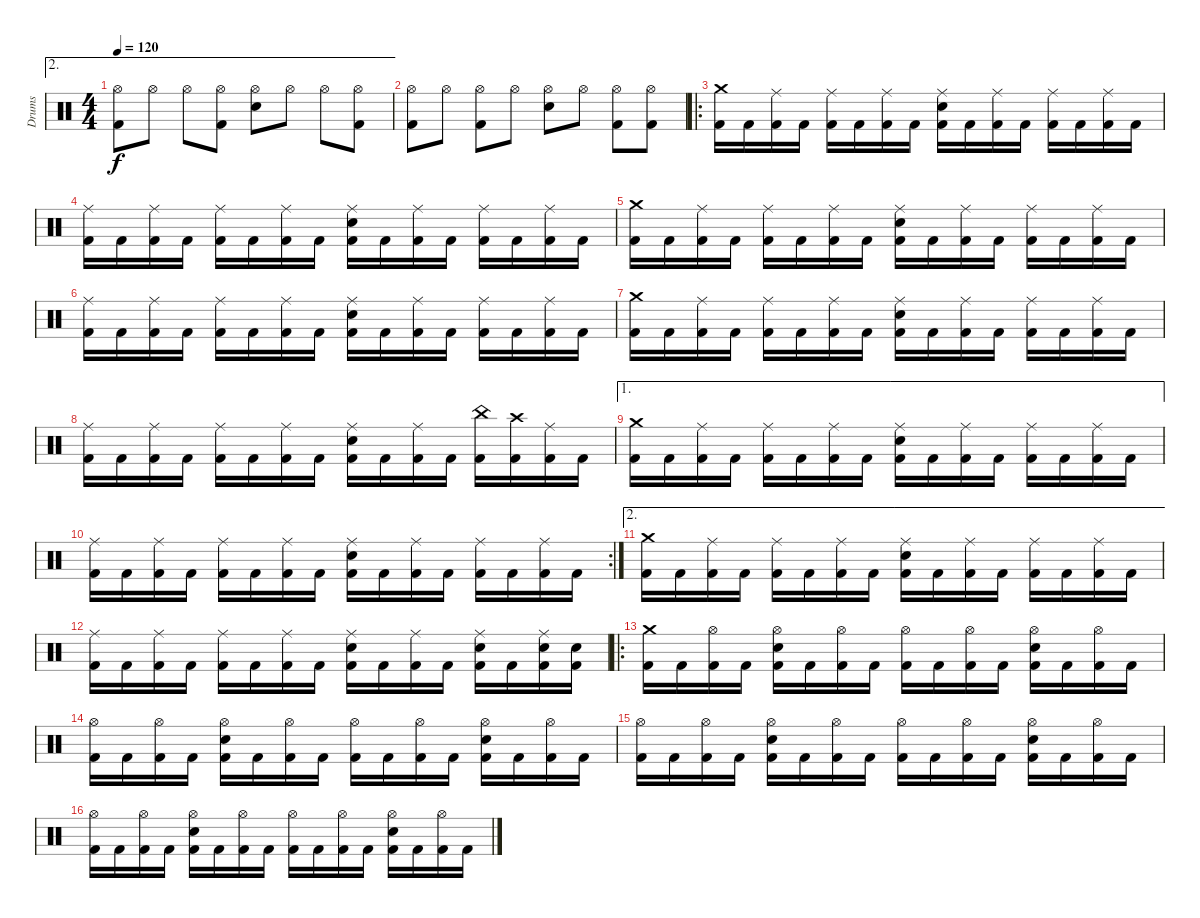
\track ("Drums " "Drums ") {instrument percussion}
\staff {score}
\articulation defaults
\ae 2
\ts (4 4)
\tempo 120
\clef neutral
\ks c
("Hi-Hat (open)" "Kick (hit) 2").8{dy f} "Hi-Hat (open)".8 "Hi-Hat (open)".8 ("Hi-Hat (open)" "Kick (hit) 2").8 ("Hi-Hat (open)" "Snare (hit) 2").8 "Hi-Hat (open)".8 "Hi-Hat (open)".8 ("Hi-Hat (open)" "Kick (hit) 2").8 |
("Hi-Hat (open)" "Kick (hit) 2").8 "Hi-Hat (open)".8 ("Hi-Hat (open)" "Kick (hit) 2").8 "Hi-Hat (open)".8 ("Hi-Hat (open)" "Snare (hit) 2").8 "Hi-Hat (open)".8 ("Hi-Hat (open)" "Kick (hit) 2").8 ("Hi-Hat (open)" "Kick (hit) 2").8 |
\ro
("Crash medium (hit)" "Kick (hit) 2").16 "Kick (hit) 2".16 ("Ride (middle)" "Kick (hit) 2").16 "Kick (hit) 2".16 ("Ride (middle)" "Kick (hit) 2").16 "Kick (hit) 2".16 ("Ride (middle)" "Kick (hit) 2").16 "Kick (hit) 2".16 ("Ride (middle)" "Snare (hit) 2" "Kick (hit) 2").16 "Kick (hit) 2".16 ("Ride (middle)" "Kick (hit) 2").16 "Kick (hit) 2".16 ("Ride (middle)" "Kick (hit) 2").16 "Kick (hit) 2".16 ("Ride (middle)" "Kick (hit) 2").16 "Kick (hit) 2".16 |
("Ride (middle)" "Kick (hit) 2").16 "Kick (hit) 2".16 ("Ride (middle)" "Kick (hit) 2").16 "Kick (hit) 2".16 ("Ride (middle)" "Kick (hit) 2").16 "Kick (hit) 2".16 ("Ride (middle)" "Kick (hit) 2").16 "Kick (hit) 2".16 ("Ride (middle)" "Snare (hit) 2" "Kick (hit) 2").16 "Kick (hit) 2".16 ("Ride (middle)" "Kick (hit) 2").16 "Kick (hit) 2".16 ("Ride (middle)" "Kick (hit) 2").16 "Kick (hit) 2".16 ("Ride (middle)" "Kick (hit) 2").16 "Kick (hit) 2".16 |
("Crash medium (hit)" "Kick (hit) 2").16 "Kick (hit) 2".16 ("Ride (middle)" "Kick (hit) 2").16 "Kick (hit) 2".16 ("Ride (middle)" "Kick (hit) 2").16 "Kick (hit) 2".16 ("Ride (middle)" "Kick (hit) 2").16 "Kick (hit) 2".16 ("Ride (middle)" "Snare (hit) 2" "Kick (hit) 2").16 "Kick (hit) 2".16 ("Ride (middle)" "Kick (hit) 2").16 "Kick (hit) 2".16 ("Ride (middle)" "Kick (hit) 2").16 "Kick (hit) 2".16 ("Ride (middle)" "Kick (hit) 2").16 "Kick (hit) 2".16 |
("Ride (middle)" "Kick (hit) 2").16 "Kick (hit) 2".16 ("Ride (middle)" "Kick (hit) 2").16 "Kick (hit) 2".16 ("Ride (middle)" "Kick (hit) 2").16 "Kick (hit) 2".16 ("Ride (middle)" "Kick (hit) 2").16 "Kick (hit) 2".16 ("Ride (middle)" "Snare (hit) 2" "Kick (hit) 2").16 "Kick (hit) 2".16 ("Ride (middle)" "Kick (hit) 2").16 "Kick (hit) 2".16 ("Ride (middle)" "Kick (hit) 2").16 "Kick (hit) 2".16 ("Ride (middle)" "Kick (hit) 2").16 "Kick (hit) 2".16 |
("Crash medium (hit)" "Kick (hit) 2").16 "Kick (hit) 2".16 ("Ride (middle)" "Kick (hit) 2").16 "Kick (hit) 2".16 ("Ride (middle)" "Kick (hit) 2").16 "Kick (hit) 2".16 ("Ride (middle)" "Kick (hit) 2").16 "Kick (hit) 2".16 ("Ride (middle)" "Snare (hit) 2" "Kick (hit) 2").16 "Kick (hit) 2".16 ("Ride (middle)" "Kick (hit) 2").16 "Kick (hit) 2".16 ("Ride (middle)" "Kick (hit) 2").16 "Kick (hit) 2".16 ("Ride (middle)" "Kick (hit) 2").16 "Kick (hit) 2".16 |
("Ride (middle)" "Kick (hit) 2").16 "Kick (hit) 2".16 ("Ride (middle)" "Kick (hit) 2").16 "Kick (hit) 2".16 ("Ride (middle)" "Kick (hit) 2").16 "Kick (hit) 2".16 ("Ride (middle)" "Kick (hit) 2").16 "Kick (hit) 2".16 ("Ride (middle)" "Snare (hit) 2" "Kick (hit) 2").16 "Kick (hit) 2".16 ("Ride (middle)" "Kick (hit) 2").16 "Kick (hit) 2".16 ("China (hit)" "Kick (hit) 2").16 ("Crash high (hit)" "Kick (hit) 2").16 ("Ride (middle)" "Kick (hit) 2").16 "Kick (hit) 2".16 |
\ae 1
("Crash medium (hit)" "Kick (hit) 2").16 "Kick (hit) 2".16 ("Ride (middle)" "Kick (hit) 2").16 "Kick (hit) 2".16 ("Ride (middle)" "Kick (hit) 2").16 "Kick (hit) 2".16 ("Ride (middle)" "Kick (hit) 2").16 "Kick (hit) 2".16 ("Ride (middle)" "Snare (hit) 2" "Kick (hit) 2").16 "Kick (hit) 2".16 ("Ride (middle)" "Kick (hit) 2").16 "Kick (hit) 2".16 ("Ride (middle)" "Kick (hit) 2").16 "Kick (hit) 2".16 ("Ride (middle)" "Kick (hit) 2").16 "Kick (hit) 2".16 |
\rc 2
("Ride (middle)" "Kick (hit) 2").16 "Kick (hit) 2".16 ("Ride (middle)" "Kick (hit) 2").16 "Kick (hit) 2".16 ("Ride (middle)" "Kick (hit) 2").16 "Kick (hit) 2".16 ("Ride (middle)" "Kick (hit) 2").16 "Kick (hit) 2".16 ("Ride (middle)" "Snare (hit) 2" "Kick (hit) 2").16 "Kick (hit) 2".16 ("Ride (middle)" "Kick (hit) 2").16 "Kick (hit) 2".16 ("Ride (middle)" "Kick (hit) 2").16 "Kick (hit) 2".16 ("Ride (middle)" "Kick (hit) 2").16 "Kick (hit) 2".16 |
\ae 2
("Crash medium (hit)" "Kick (hit) 2").16 "Kick (hit) 2".16 ("Ride (middle)" "Kick (hit) 2").16 "Kick (hit) 2".16 ("Ride (middle)" "Kick (hit) 2").16 "Kick (hit) 2".16 ("Ride (middle)" "Kick (hit) 2").16 "Kick (hit) 2".16 ("Ride (middle)" "Snare (hit) 2" "Kick (hit) 2").16 "Kick (hit) 2".16 ("Ride (middle)" "Kick (hit) 2").16 "Kick (hit) 2".16 ("Ride (middle)" "Kick (hit) 2").16 "Kick (hit) 2".16 ("Ride (middle)" "Kick (hit) 2").16 "Kick (hit) 2".16 |
("Ride (middle)" "Kick (hit) 2").16 "Kick (hit) 2".16 ("Ride (middle)" "Kick (hit) 2").16 "Kick (hit) 2".16 ("Ride (middle)" "Kick (hit) 2").16 "Kick (hit) 2".16 ("Ride (middle)" "Kick (hit) 2").16 "Kick (hit) 2".16 ("Ride (middle)" "Snare (hit) 2" "Kick (hit) 2").16 "Kick (hit) 2".16 ("Ride (middle)" "Kick (hit) 2").16 "Kick (hit) 2".16 ("Ride (middle)" "Snare (hit) 2" "Kick (hit) 2").16 "Kick (hit) 2".16 ("Ride (middle)" "Snare (hit) 2" "Kick (hit) 2").16 ("Snare (hit) 2" "Kick (hit) 2").16 |
\ro
("Crash medium (hit)" "Kick (hit) 2").16 "Kick (hit) 2".16 ("Hi-Hat (open)" "Kick (hit) 2").16 "Kick (hit) 2".16 ("Hi-Hat (open)" "Snare (hit) 2" "Kick (hit) 2").16 "Kick (hit) 2".16 ("Hi-Hat (open)" "Kick (hit) 2").16 "Kick (hit) 2".16 ("Hi-Hat (open)" "Kick (hit) 2").16 "Kick (hit) 2".16 ("Hi-Hat (open)" "Kick (hit) 2").16 "Kick (hit) 2".16 ("Hi-Hat (open)" "Snare (hit) 2" "Kick (hit) 2").16 "Kick (hit) 2".16 ("Hi-Hat (open)" "Kick (hit) 2").16 "Kick (hit) 2".16 |
("Hi-Hat (open)" "Kick (hit) 2").16 "Kick (hit) 2".16 ("Hi-Hat (open)" "Kick (hit) 2").16 "Kick (hit) 2".16 ("Hi-Hat (open)" "Snare (hit) 2" "Kick (hit) 2").16 "Kick (hit) 2".16 ("Hi-Hat (open)" "Kick (hit) 2").16 "Kick (hit) 2".16 ("Hi-Hat (open)" "Kick (hit) 2").16 "Kick (hit) 2".16 ("Hi-Hat (open)" "Kick (hit) 2").16 "Kick (hit) 2".16 ("Hi-Hat (open)" "Snare (hit) 2" "Kick (hit) 2").16 "Kick (hit) 2".16 ("Hi-Hat (open)" "Kick (hit) 2").16 "Kick (hit) 2".16 |
("Hi-Hat (open)" "Kick (hit) 2").16 "Kick (hit) 2".16 ("Hi-Hat (open)" "Kick (hit) 2").16 "Kick (hit) 2".16 ("Hi-Hat (open)" "Snare (hit) 2" "Kick (hit) 2").16 "Kick (hit) 2".16 ("Hi-Hat (open)" "Kick (hit) 2").16 "Kick (hit) 2".16 ("Hi-Hat (open)" "Kick (hit) 2").16 "Kick (hit) 2".16 ("Hi-Hat (open)" "Kick (hit) 2").16 "Kick (hit) 2".16 ("Hi-Hat (open)" "Snare (hit) 2" "Kick (hit) 2").16 "Kick (hit) 2".16 ("Hi-Hat (open)" "Kick (hit) 2").16 "Kick (hit) 2".16 |
("Hi-Hat (open)" "Kick (hit) 2").16 "Kick (hit) 2".16 ("Hi-Hat (open)" "Kick (hit) 2").16 "Kick (hit) 2".16 ("Hi-Hat (open)" "Snare (hit) 2" "Kick (hit) 2").16 "Kick (hit) 2".16 ("Hi-Hat (open)" "Kick (hit) 2").16 "Kick (hit) 2".16 ("Hi-Hat (open)" "Kick (hit) 2").16 "Kick (hit) 2".16 ("Hi-Hat (open)" "Kick (hit) 2").16 "Kick (hit) 2".16 ("Hi-Hat (open)" "Snare (hit) 2" "Kick (hit) 2").16 "Kick (hit) 2".16 ("Hi-Hat (open)" "Kick (hit) 2").16 "Kick (hit) 2".16
